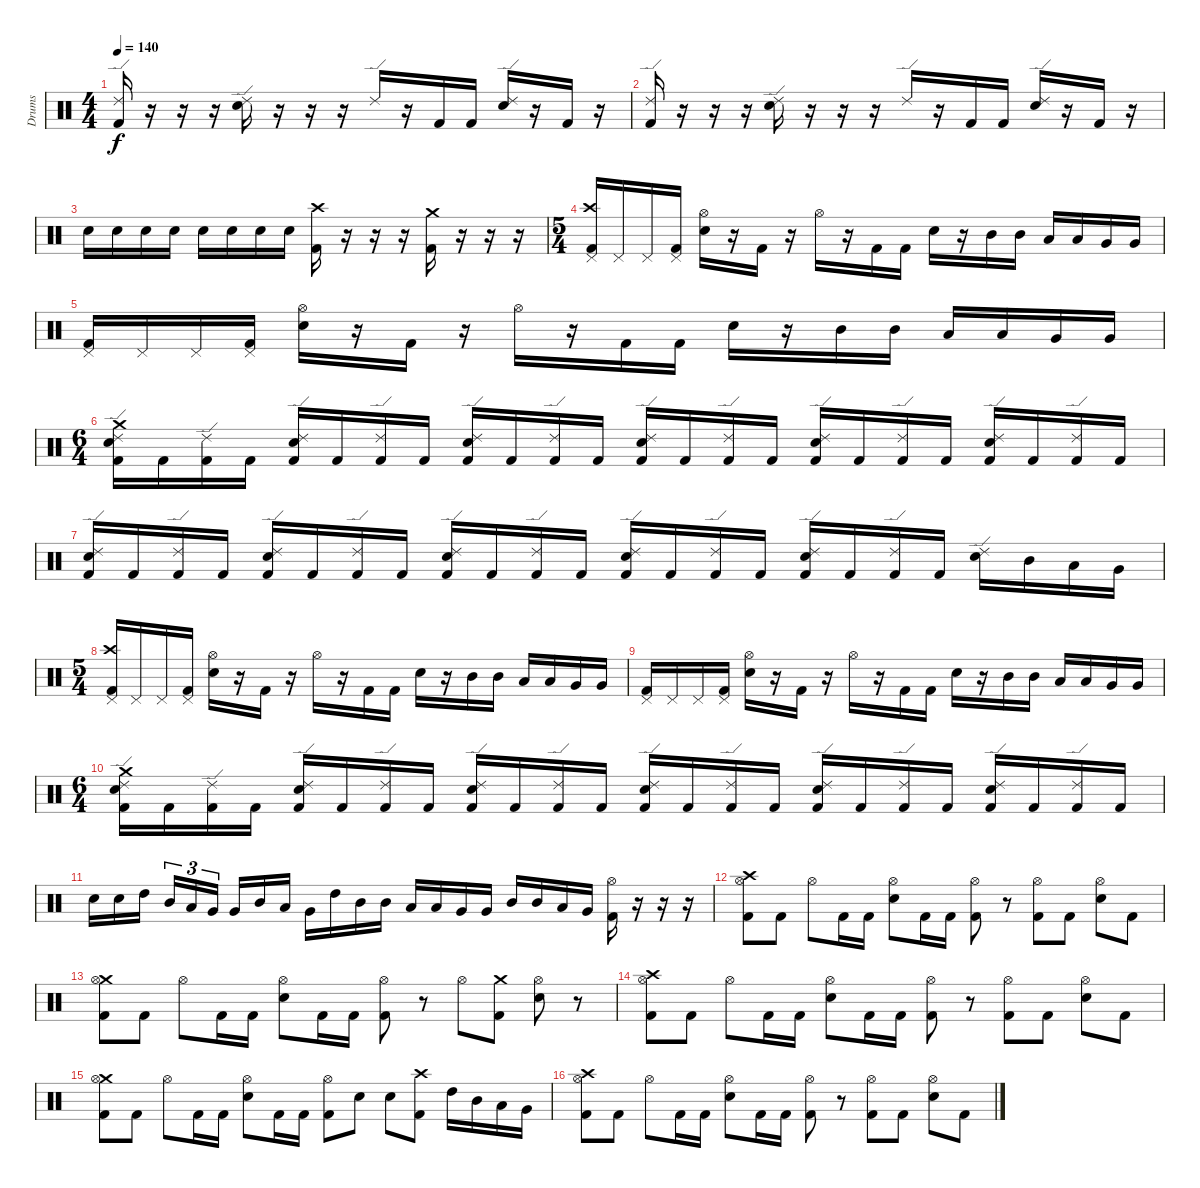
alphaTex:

\track ("Drums" "Drums") {instrument percussion}
\staff {score}
\articulation defaults
\ts (4 4)
\tempo 140
\clef neutral
\ks c
("Ride (edge) 2" "Kick (hit) 2").16{dy f} r.16 r.16 r.16 ("Ride (edge) 2" "Electric Snare (hit)").16 r.16 r.16 r.16 "Ride (edge) 2".16 r.16 "Kick (hit) 2".16 "Kick (hit) 2".16 ("Ride (edge) 2" "Electric Snare (hit)").16 r.16 "Kick (hit) 2".16 r.16 |
("Ride (edge) 2" "Kick (hit) 2").16 r.16 r.16 r.16 ("Ride (edge) 2" "Electric Snare (hit)").16 r.16 r.16 r.16 "Ride (edge) 2".16 r.16 "Kick (hit) 2".16 "Kick (hit) 2".16 ("Ride (edge) 2" "Electric Snare (hit)").16 r.16 "Kick (hit) 2".16 r.16 |
"Electric Snare (hit)".16 "Electric Snare (hit)".16 "Electric Snare (hit)".16 "Electric Snare (hit)".16 "Electric Snare (hit)".16 "Electric Snare (hit)".16 "Electric Snare (hit)".16 "Electric Snare (hit)".16 ("Crash high (hit)" "Kick (hit) 2").16 r.16 r.16 r.16 ("Crash medium (hit)" "Kick (hit) 2").16 r.16 r.16 r.16 |
\ts (5 4)
("Crash high (hit)" "Pedal Hi-Hat (hit)" "Kick (hit) 2").16 "Pedal Hi-Hat (hit)".16 "Pedal Hi-Hat (hit)".16 ("Pedal Hi-Hat (hit)" "Kick (hit) 2").16 ("Hi-Hat (open)" "Electric Snare (hit)").16 r.16 "Kick (hit) 2".16 r.16 "Hi-Hat (open)".16 r.16 "Kick (hit) 2".16 "Kick (hit) 2".16 "Electric Snare (hit)".16 r.16 "Mid Tom (hit)".16 "Mid Tom (hit)".16 "Low Tom (hit)".16 "Low Tom (hit)".16 "Very Low Tom (hit)".16 "Very Low Tom (hit)".16 |
("Pedal Hi-Hat (hit)" "Kick (hit) 2").16 "Pedal Hi-Hat (hit)".16 "Pedal Hi-Hat (hit)".16 ("Pedal Hi-Hat (hit)" "Kick (hit) 2").16 ("Hi-Hat (open)" "Electric Snare (hit)").16 r.16 "Kick (hit) 2".16 r.16 "Hi-Hat (open)".16 r.16 "Kick (hit) 2".16 "Kick (hit) 2".16 "Electric Snare (hit)".16 r.16 "Mid Tom (hit)".16 "Mid Tom (hit)".16 "Low Tom (hit)".16 "Low Tom (hit)".16 "Very Low Tom (hit)".16 "Very Low Tom (hit)".16 |
\ts (6 4)
("Crash medium (hit)" "Ride (edge) 2" "Electric Snare (hit)" "Kick (hit) 2").16 "Kick (hit) 2".16 ("Ride (edge) 2" "Kick (hit) 2").16 "Kick (hit) 2".16 ("Ride (edge) 2" "Electric Snare (hit)" "Kick (hit) 2").16 "Kick (hit) 2".16 ("Ride (edge) 2" "Kick (hit) 2").16 "Kick (hit) 2".16 ("Ride (edge) 2" "Electric Snare (hit)" "Kick (hit) 2").16 "Kick (hit) 2".16 ("Ride (edge) 2" "Kick (hit) 2").16 "Kick (hit) 2".16 ("Ride (edge) 2" "Electric Snare (hit)" "Kick (hit) 2").16 "Kick (hit) 2".16 ("Ride (edge) 2" "Kick (hit) 2").16 "Kick (hit) 2".16 ("Ride (edge) 2" "Electric Snare (hit)" "Kick (hit) 2").16 "Kick (hit) 2".16 ("Ride (edge) 2" "Kick (hit) 2").16 "Kick (hit) 2".16 ("Ride (edge) 2" "Electric Snare (hit)" "Kick (hit) 2").16 "Kick (hit) 2".16 ("Ride (edge) 2" "Kick (hit) 2").16 "Kick (hit) 2".16 |
("Ride (edge) 2" "Electric Snare (hit)" "Kick (hit) 2").16 "Kick (hit) 2".16 ("Ride (edge) 2" "Kick (hit) 2").16 "Kick (hit) 2".16 ("Ride (edge) 2" "Electric Snare (hit)" "Kick (hit) 2").16 "Kick (hit) 2".16 ("Ride (edge) 2" "Kick (hit) 2").16 "Kick (hit) 2".16 ("Ride (edge) 2" "Electric Snare (hit)" "Kick (hit) 2").16 "Kick (hit) 2".16 ("Ride (edge) 2" "Kick (hit) 2").16 "Kick (hit) 2".16 ("Ride (edge) 2" "Electric Snare (hit)" "Kick (hit) 2").16 "Kick (hit) 2".16 ("Ride (edge) 2" "Kick (hit) 2").16 "Kick (hit) 2".16 ("Ride (edge) 2" "Electric Snare (hit)" "Kick (hit) 2").16 "Kick (hit) 2".16 ("Ride (edge) 2" "Kick (hit) 2").16 "Kick (hit) 2".16 ("Ride (edge) 2" "Electric Snare (hit)").16 "Mid Tom (hit)".16 "Low Tom (hit)".16 "Very Low Tom (hit)".16 |
\ts (5 4)
("Crash high (hit)" "Pedal Hi-Hat (hit)" "Kick (hit) 2").16 "Pedal Hi-Hat (hit)".16 "Pedal Hi-Hat (hit)".16 ("Pedal Hi-Hat (hit)" "Kick (hit) 2").16 ("Hi-Hat (open)" "Electric Snare (hit)").16 r.16 "Kick (hit) 2".16 r.16 "Hi-Hat (open)".16 r.16 "Kick (hit) 2".16 "Kick (hit) 2".16 "Electric Snare (hit)".16 r.16 "Mid Tom (hit)".16 "Mid Tom (hit)".16 "Low Tom (hit)".16 "Low Tom (hit)".16 "Very Low Tom (hit)".16 "Very Low Tom (hit)".16 |
("Pedal Hi-Hat (hit)" "Kick (hit) 2").16 "Pedal Hi-Hat (hit)".16 "Pedal Hi-Hat (hit)".16 ("Pedal Hi-Hat (hit)" "Kick (hit) 2").16 ("Hi-Hat (open)" "Electric Snare (hit)").16 r.16 "Kick (hit) 2".16 r.16 "Hi-Hat (open)".16 r.16 "Kick (hit) 2".16 "Kick (hit) 2".16 "Electric Snare (hit)".16 r.16 "Mid Tom (hit)".16 "Mid Tom (hit)".16 "Low Tom (hit)".16 "Low Tom (hit)".16 "Very Low Tom (hit)".16 "Very Low Tom (hit)".16 |
\ts (6 4)
("Crash medium (hit)" "Ride (edge) 2" "Electric Snare (hit)" "Kick (hit) 2").16 "Kick (hit) 2".16 ("Ride (edge) 2" "Kick (hit) 2").16 "Kick (hit) 2".16 ("Ride (edge) 2" "Electric Snare (hit)" "Kick (hit) 2").16 "Kick (hit) 2".16 ("Ride (edge) 2" "Kick (hit) 2").16 "Kick (hit) 2".16 ("Ride (edge) 2" "Electric Snare (hit)" "Kick (hit) 2").16 "Kick (hit) 2".16 ("Ride (edge) 2" "Kick (hit) 2").16 "Kick (hit) 2".16 ("Ride (edge) 2" "Electric Snare (hit)" "Kick (hit) 2").16 "Kick (hit) 2".16 ("Ride (edge) 2" "Kick (hit) 2").16 "Kick (hit) 2".16 ("Ride (edge) 2" "Electric Snare (hit)" "Kick (hit) 2").16 "Kick (hit) 2".16 ("Ride (edge) 2" "Kick (hit) 2").16 "Kick (hit) 2".16 ("Ride (edge) 2" "Electric Snare (hit)" "Kick (hit) 2").16 "Kick (hit) 2".16 ("Ride (edge) 2" "Kick (hit) 2").16 "Kick (hit) 2".16 |
"Electric Snare (hit)".16 "Electric Snare (hit)".16 "High Tom (hit)".16 "Mid Tom (hit)".16{tu (3 2)} "Low Tom (hit)".16{tu (3 2)} "Very Low Tom (hit)".16{tu (3 2)} "Very Low Tom (hit)".16 "Mid Tom (hit)".16 "Low Tom (hit)".16 "Very Low Tom (hit)".16 "High Tom (hit)".16 "Mid Tom (hit)".16 "Mid Tom (hit)".16 "Low Tom (hit)".16 "Low Tom (hit)".16 "Very Low Tom (hit)".16 "Very Low Tom (hit)".16 "Mid Tom (hit)".16 "Mid Tom (hit)".16 "Low Tom (hit)".16 "Very Low Tom (hit)".16 ("Hi-Hat (open)" "Kick (hit) 2").16 r.16 r.16 r.16 |
("Crash high (hit)" "Hi-Hat (open)" "Kick (hit) 2").8 "Kick (hit) 2".8 "Hi-Hat (open)".8 "Kick (hit) 2".16 "Kick (hit) 2".16 ("Hi-Hat (open)" "Electric Snare (hit)").8 "Kick (hit) 2".16 "Kick (hit) 2".16 ("Hi-Hat (open)" "Kick (hit) 2").8 r.8 ("Hi-Hat (open)" "Kick (hit) 2").8 "Kick (hit) 2".8 ("Hi-Hat (open)" "Electric Snare (hit)").8 "Kick (hit) 2".8 |
("Crash medium (hit)" "Hi-Hat (open)" "Kick (hit) 2").8 "Kick (hit) 2".8 "Hi-Hat (open)".8 "Kick (hit) 2".16 "Kick (hit) 2".16 ("Hi-Hat (open)" "Electric Snare (hit)").8 "Kick (hit) 2".16 "Kick (hit) 2".16 ("Hi-Hat (open)" "Kick (hit) 2").8 r.8 "Hi-Hat (open)".8 ("Crash medium (hit)" "Kick (hit) 2").8 ("Hi-Hat (open)" "Electric Snare (hit)").8 r.8 |
("Crash high (hit)" "Hi-Hat (open)" "Kick (hit) 2").8 "Kick (hit) 2".8 "Hi-Hat (open)".8 "Kick (hit) 2".16 "Kick (hit) 2".16 ("Hi-Hat (open)" "Electric Snare (hit)").8 "Kick (hit) 2".16 "Kick (hit) 2".16 ("Hi-Hat (open)" "Kick (hit) 2").8 r.8 ("Hi-Hat (open)" "Kick (hit) 2").8 "Kick (hit) 2".8 ("Hi-Hat (open)" "Electric Snare (hit)").8 "Kick (hit) 2".8 |
("Crash medium (hit)" "Hi-Hat (open)" "Kick (hit) 2").8 "Kick (hit) 2".8 "Hi-Hat (open)".8 "Kick (hit) 2".16 "Kick (hit) 2".16 ("Hi-Hat (open)" "Electric Snare (hit)").8 "Kick (hit) 2".16 "Kick (hit) 2".16 ("Hi-Hat (open)" "Kick (hit) 2").8 "Electric Snare (hit)".8 "Electric Snare (hit)".8 ("Crash high (hit)" "Kick (hit) 2").8 "High Tom (hit)".16 "Mid Tom (hit)".16 "Low Tom (hit)".16 "Very Low Tom (hit)".16 |
("Crash high (hit)" "Hi-Hat (open)" "Kick (hit) 2").8 "Kick (hit) 2".8 "Hi-Hat (open)".8 "Kick (hit) 2".16 "Kick (hit) 2".16 ("Hi-Hat (open)" "Electric Snare (hit)").8 "Kick (hit) 2".16 "Kick (hit) 2".16 ("Hi-Hat (open)" "Kick (hit) 2").8 r.8 ("Hi-Hat (open)" "Kick (hit) 2").8 "Kick (hit) 2".8 ("Hi-Hat (open)" "Electric Snare (hit)").8 "Kick (hit) 2".8
